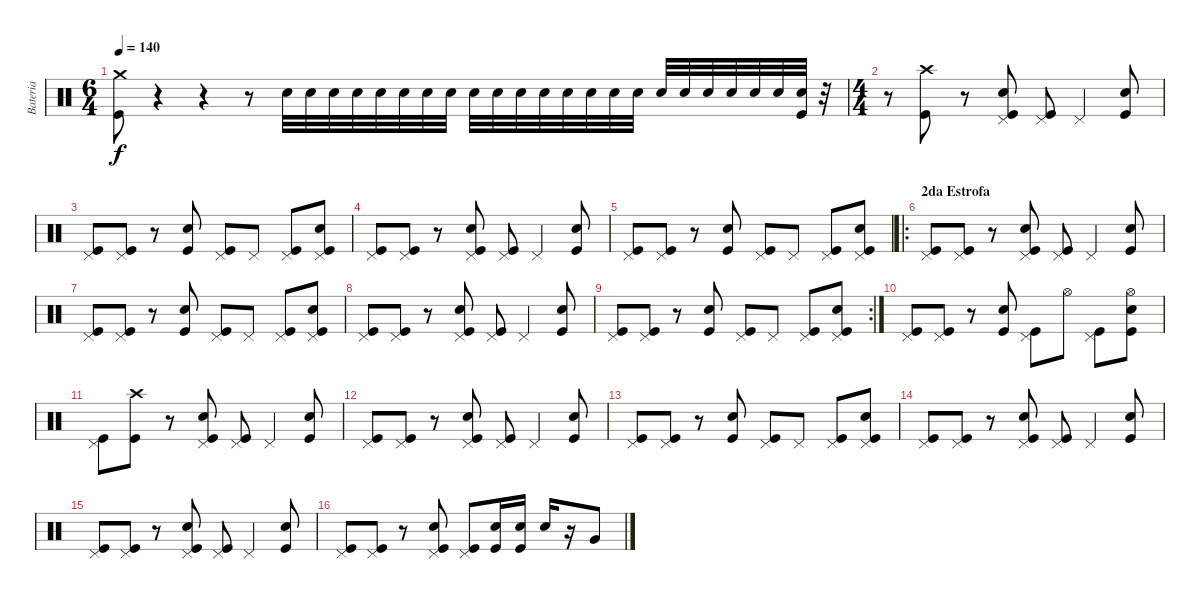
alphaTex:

\track ("Bateria" "Bateria") {instrument percussion}
\staff {score}
\articulation defaults
\ts (6 4)
\tempo 140
\clef neutral
\ks c
("Kick (hit)" "Crash medium (hit)").8{dy f} r.4 r.4 r.8{volume 0} "Snare (hit) 2".32{volume 13} "Snare (hit) 2".32 "Snare (hit) 2".32 "Snare (hit) 2".32 "Snare (hit) 2".32 "Snare (hit) 2".32 "Snare (hit) 2".32 "Snare (hit) 2".32 "Snare (hit) 2".32 "Snare (hit) 2".32 "Snare (hit) 2".32 "Snare (hit) 2".32 "Snare (hit) 2".32 "Snare (hit) 2".32 "Snare (hit) 2".32 "Snare (hit) 2".32 "Snare (hit) 2".32 "Snare (hit) 2".32 "Snare (hit) 2".32 "Snare (hit) 2".32 "Snare (hit) 2".32 "Snare (hit) 2".32 ("Kick (hit)" "Snare (hit) 2").32 r.32 |
\ts (4 4)
r.8 ("Kick (hit)" "Crash high (hit)").8 r.8 ("Kick (hit)" "Snare (hit) 2" "Pedal Hi-Hat (hit)").8 ("Kick (hit)" "Pedal Hi-Hat (hit)").8 "Pedal Hi-Hat (hit)".4 ("Kick (hit)" "Snare (hit) 2").8 |
("Kick (hit)" "Pedal Hi-Hat (hit)").8 ("Kick (hit)" "Pedal Hi-Hat (hit)").8 r.8 ("Kick (hit)" "Snare (hit) 2").8 ("Kick (hit)" "Pedal Hi-Hat (hit)").8 "Pedal Hi-Hat (hit)".8 ("Kick (hit)" "Pedal Hi-Hat (hit)").8 ("Kick (hit)" "Snare (hit) 2" "Pedal Hi-Hat (hit)").8 |
("Kick (hit)" "Pedal Hi-Hat (hit)").8 ("Kick (hit)" "Pedal Hi-Hat (hit)").8 r.8 ("Kick (hit)" "Snare (hit) 2" "Pedal Hi-Hat (hit)").8 ("Kick (hit)" "Pedal Hi-Hat (hit)").8 "Pedal Hi-Hat (hit)".4 ("Kick (hit)" "Snare (hit) 2").8 |
("Kick (hit)" "Pedal Hi-Hat (hit)").8 ("Kick (hit)" "Pedal Hi-Hat (hit)").8 r.8 ("Kick (hit)" "Snare (hit) 2").8 ("Kick (hit)" "Pedal Hi-Hat (hit)").8 "Pedal Hi-Hat (hit)".8 ("Kick (hit)" "Pedal Hi-Hat (hit)").8 ("Kick (hit)" "Snare (hit) 2" "Pedal Hi-Hat (hit)").8 |
\ro
\section ("" "2da Estrofa")
("Kick (hit)" "Pedal Hi-Hat (hit)").8 ("Kick (hit)" "Pedal Hi-Hat (hit)").8 r.8 ("Kick (hit)" "Snare (hit) 2" "Pedal Hi-Hat (hit)").8 ("Kick (hit)" "Pedal Hi-Hat (hit)").8 "Pedal Hi-Hat (hit)".4 ("Kick (hit)" "Snare (hit) 2").8 |
("Kick (hit)" "Pedal Hi-Hat (hit)").8 ("Kick (hit)" "Pedal Hi-Hat (hit)").8 r.8 ("Kick (hit)" "Snare (hit) 2").8 ("Kick (hit)" "Pedal Hi-Hat (hit)").8 "Pedal Hi-Hat (hit)".8 ("Kick (hit)" "Pedal Hi-Hat (hit)").8 ("Kick (hit)" "Snare (hit) 2" "Pedal Hi-Hat (hit)").8 |
("Kick (hit)" "Pedal Hi-Hat (hit)").8 ("Kick (hit)" "Pedal Hi-Hat (hit)").8 r.8 ("Kick (hit)" "Snare (hit) 2" "Pedal Hi-Hat (hit)").8 ("Kick (hit)" "Pedal Hi-Hat (hit)").8 "Pedal Hi-Hat (hit)".4 ("Kick (hit)" "Snare (hit) 2").8 |
\rc 2
("Kick (hit)" "Pedal Hi-Hat (hit)").8 ("Kick (hit)" "Pedal Hi-Hat (hit)").8 r.8 ("Kick (hit)" "Snare (hit) 2").8 ("Kick (hit)" "Pedal Hi-Hat (hit)").8 "Pedal Hi-Hat (hit)".8 ("Kick (hit)" "Pedal Hi-Hat (hit)").8 ("Kick (hit)" "Snare (hit) 2" "Pedal Hi-Hat (hit)").8 |
("Kick (hit)" "Pedal Hi-Hat (hit)").8 ("Kick (hit)" "Pedal Hi-Hat (hit)").8 r.8 ("Kick (hit)" "Snare (hit) 2").8 ("Kick (hit)" "Pedal Hi-Hat (hit)").8 "Hi-Hat (open)".8 ("Kick (hit)" "Pedal Hi-Hat (hit)").8 ("Kick (hit)" "Snare (hit) 2" "Hi-Hat (open)").8 |
("Kick (hit)" "Pedal Hi-Hat (hit)").8 ("Kick (hit)" "Crash high (hit)").8 r.8 ("Kick (hit)" "Snare (hit) 2" "Pedal Hi-Hat (hit)").8 ("Kick (hit)" "Pedal Hi-Hat (hit)").8 "Pedal Hi-Hat (hit)".4 ("Kick (hit)" "Snare (hit) 2").8 |
("Kick (hit)" "Pedal Hi-Hat (hit)").8 ("Kick (hit)" "Pedal Hi-Hat (hit)").8 r.8 ("Kick (hit)" "Snare (hit) 2" "Pedal Hi-Hat (hit)").8 ("Kick (hit)" "Pedal Hi-Hat (hit)").8 "Pedal Hi-Hat (hit)".4 ("Kick (hit)" "Snare (hit) 2").8 |
("Kick (hit)" "Pedal Hi-Hat (hit)").8 ("Kick (hit)" "Pedal Hi-Hat (hit)").8 r.8 ("Kick (hit)" "Snare (hit) 2").8 ("Kick (hit)" "Pedal Hi-Hat (hit)").8 "Pedal Hi-Hat (hit)".8 ("Kick (hit)" "Pedal Hi-Hat (hit)").8 ("Kick (hit)" "Snare (hit) 2" "Pedal Hi-Hat (hit)").8 |
("Kick (hit)" "Pedal Hi-Hat (hit)").8 ("Kick (hit)" "Pedal Hi-Hat (hit)").8 r.8 ("Kick (hit)" "Snare (hit) 2" "Pedal Hi-Hat (hit)").8 ("Kick (hit)" "Pedal Hi-Hat (hit)").8 "Pedal Hi-Hat (hit)".4 ("Kick (hit)" "Snare (hit) 2").8 |
("Kick (hit)" "Pedal Hi-Hat (hit)").8 ("Kick (hit)" "Pedal Hi-Hat (hit)").8 r.8 ("Kick (hit)" "Snare (hit) 2" "Pedal Hi-Hat (hit)").8 ("Kick (hit)" "Pedal Hi-Hat (hit)").8 "Pedal Hi-Hat (hit)".4 ("Kick (hit)" "Snare (hit) 2").8 |
("Kick (hit)" "Pedal Hi-Hat (hit)").8 ("Kick (hit)" "Pedal Hi-Hat (hit)").8 r.8 ("Kick (hit)" "Snare (hit) 2" "Pedal Hi-Hat (hit)").8 ("Kick (hit)" "Pedal Hi-Hat (hit)").8 ("Kick (hit)" "Snare (hit) 2").16 ("Kick (hit)" "Snare (hit) 2").16 "Snare (hit) 2".16 r.16 "Very Low Tom (hit)".8
